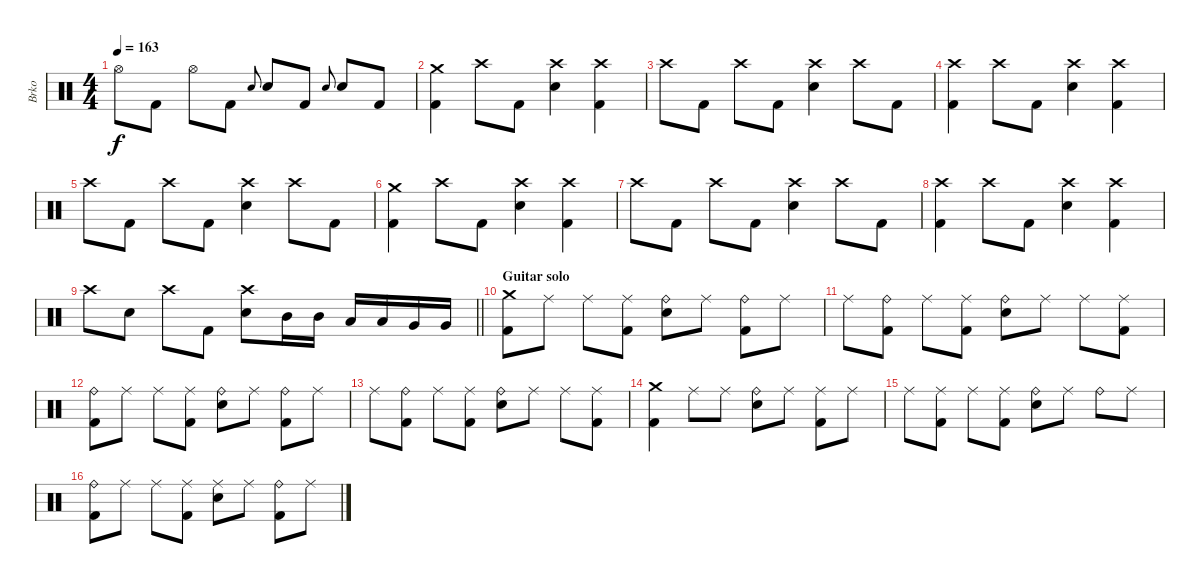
\track ("Brko" "Brko") {instrument percussion}
\staff {score}
\articulation defaults
\ts (4 4)
\tempo 163
\clef neutral
\ks c "Hi-Hat (open)".8{dy f} "Kick (hit) 2".8 "Hi-Hat (open)".8 "Kick (hit) 2".8 "Electric Snare (hit)".8{gr onbeat} "Electric Snare (hit)".8 "Kick (hit) 2".8 "Electric Snare (hit)".8{gr onbeat} "Electric Snare (hit)".8 "Kick (hit) 2".8
|
("Crash medium (hit)" "Kick (hit) 2").4 "Crash high (hit)".8 "Kick (hit) 2".8 ("Crash high (hit)" "Electric Snare (hit)").4 ("Crash high (hit)" "Kick (hit) 2").4 |
"Crash high (hit)".8 "Kick (hit) 2".8 "Crash high (hit)".8 "Kick (hit) 2".8 ("Crash high (hit)" "Electric Snare (hit)").4 "Crash high (hit)".8 "Kick (hit) 2".8 |
("Crash high (hit)" "Kick (hit) 2").4 "Crash high (hit)".8 "Kick (hit) 2".8 ("Crash high (hit)" "Electric Snare (hit)").4 ("Crash high (hit)" "Kick (hit) 2").4 |
"Crash high (hit)".8 "Kick (hit) 2".8 "Crash high (hit)".8 "Kick (hit) 2".8 ("Crash high (hit)" "Electric Snare (hit)").4 "Crash high (hit)".8 "Kick (hit) 2".8 |
("Crash medium (hit)" "Kick (hit) 2").4 "Crash high (hit)".8 "Kick (hit) 2".8 ("Crash high (hit)" "Electric Snare (hit)").4 ("Crash high (hit)" "Kick (hit) 2").4 |
"Crash high (hit)".8 "Kick (hit) 2".8 "Crash high (hit)".8 "Kick (hit) 2".8 ("Crash high (hit)" "Electric Snare (hit)").4 "Crash high (hit)".8 "Kick (hit) 2".8 |
("Crash high (hit)" "Kick (hit) 2").4 "Crash high (hit)".8 "Kick (hit) 2".8 ("Crash high (hit)" "Electric Snare (hit)").4 ("Crash high (hit)" "Kick (hit) 2").4 |
\barLineRight lightlight "Crash high (hit)".8 "Electric Snare (hit)".8 "Crash high (hit)".8 "Kick (hit) 2".8
("Crash high (hit)" "Electric Snare (hit)").8 "Mid Tom (hit)".16 "Mid Tom (hit)".16 "Low Tom (hit)".16 "Low Tom (hit)".16 "Very Low Tom (hit)".16 "Very Low Tom (hit)".16 |
\section ("" "Guitar solo")
("Crash medium (hit)" "Kick (hit) 2").8 "Ride (middle)".8 "Ride (middle)".8 ("Ride (middle)" "Kick (hit) 2").8 ("Ride (bell)" "Electric Snare (hit)").8 "Ride (middle)".8 ("Ride (bell)" "Kick (hit) 2").8 "Ride (middle)".8 |
"Ride (middle)".8 ("Ride (bell)" "Kick (hit) 2").8 "Ride (middle)".8 ("Ride (middle)" "Kick (hit) 2").8 ("Ride (bell)" "Electric Snare (hit)").8 "Ride (middle)".8 "Ride (middle)".8 ("Ride (middle)" "Kick (hit) 2").8 |
("Ride (bell)" "Kick (hit) 2").8 "Ride (middle)".8 "Ride (middle)".8 ("Ride (middle)" "Kick (hit) 2").8 ("Ride (bell)" "Electric Snare (hit)").8 "Ride (middle)".8 ("Ride (bell)" "Kick (hit) 2").8 "Ride (middle)".8 |
"Ride (middle)".8 ("Ride (bell)" "Kick (hit) 2").8 "Ride (middle)".8 ("Ride (middle)" "Kick (hit) 2").8 ("Ride (bell)" "Electric Snare (hit)").8 "Ride (middle)".8 "Ride (middle)".8 ("Ride (middle)" "Kick (hit) 2").8 |
("Crash medium (hit)" "Kick (hit) 2").4 "Ride (middle)".8 "Ride (middle)".8 ("Ride (bell)" "Electric Snare (hit)").8 "Ride (middle)".8 ("Ride (middle)" "Kick (hit) 2").8 "Ride (middle)".8 |
"Ride (middle)".8 ("Ride (middle)" "Kick (hit) 2").8 "Ride (middle)".8 ("Ride (middle)" "Kick (hit) 2").8 ("Ride (bell)" "Electric Snare (hit)").8 "Ride (middle)".8 "Ride (bell)".8 "Ride (middle)".8 |
("Ride (bell)" "Kick (hit) 2").8 "Ride (middle)".8 "Ride (middle)".8 ("Ride (middle)" "Kick (hit) 2").8 ("Ride (middle)" "Electric Snare (hit)").8 "Ride (middle)".8 ("Ride (bell)" "Kick (hit) 2").8 "Ride (middle)".8
